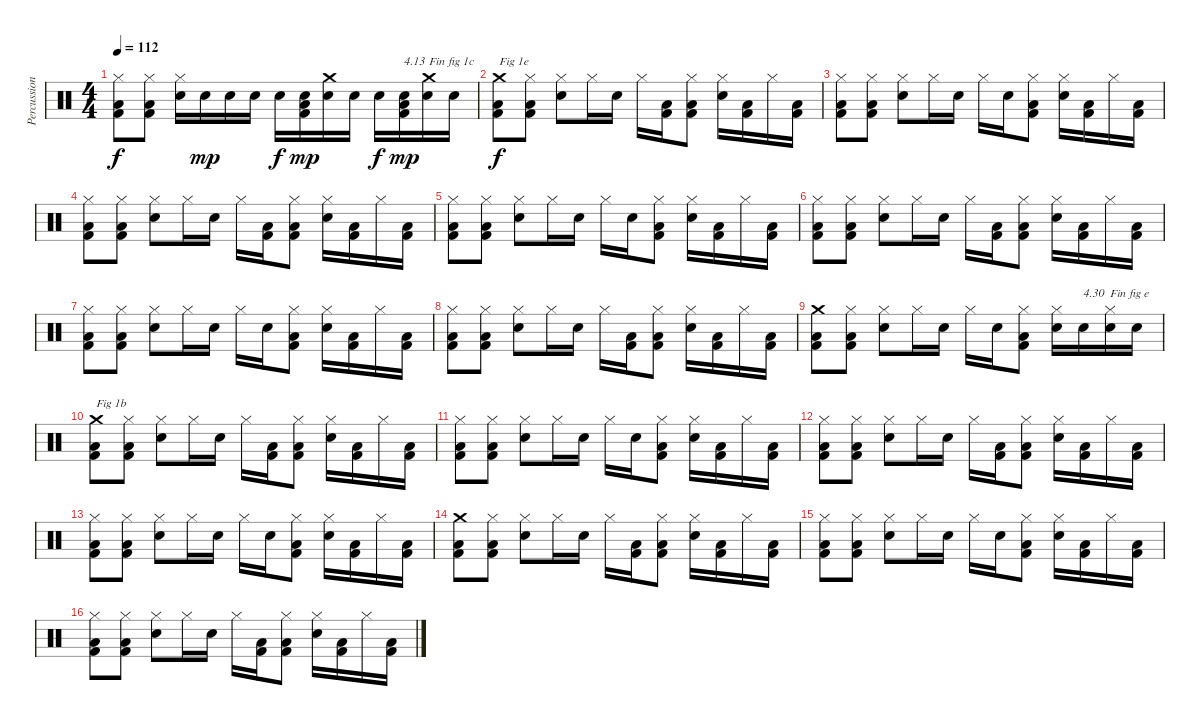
\track ("Percussions" "Percussion") {instrument percussion}
\staff {score}
\articulation defaults
\ts (4 4)
\tempo 112
\clef neutral
\ks c
("Kick (hit) 2" "Low Floor Tom (hit)" "Hi-Hat (closed)").8{dy f} ("Kick (hit) 2" "Low Floor Tom (hit)" "Hi-Hat (closed)").8 ("Snare (hit) 2" "Hi-Hat (closed)").16 "Snare (hit) 2".16{dy mp} "Snare (hit) 2".16 "Snare (hit) 2".16 "Snare (hit) 2".16{dy f} ("Kick (hit) 2" "Low Floor Tom (hit)" "Snare (hit) 2").16{dy mp} ("Snare (hit) 2" "Crash medium (hit)").16 "Snare (hit) 2".16 "Snare (hit) 2".16{dy f} ("Kick (hit) 2" "Low Floor Tom (hit)" "Snare (hit) 2").16{txt "4.13" dy mp} ("Snare (hit) 2" "Crash medium (hit)").16{txt "Fin fig 1c"} "Snare (hit) 2".16 |
("Kick (hit) 2" "Low Floor Tom (hit)" "Crash medium (hit)").8{txt "Fig 1e" dy f} ("Kick (hit) 2" "Low Floor Tom (hit)" "Hi-Hat (closed)").8 ("Snare (hit) 2" "Hi-Hat (closed)").8 "Hi-Hat (closed)".16 "Snare (hit) 2".16 "Hi-Hat (closed)".16 ("Kick (hit) 2" "Low Floor Tom (hit)").16 ("Kick (hit) 2" "Low Floor Tom (hit)" "Hi-Hat (closed)").8 ("Snare (hit) 2" "Hi-Hat (closed)").16 ("Kick (hit) 2" "Low Floor Tom (hit)").16 "Hi-Hat (closed)".16 ("Kick (hit) 2" "Low Floor Tom (hit)").16 |
("Kick (hit) 2" "Low Floor Tom (hit)" "Hi-Hat (closed)").8 ("Kick (hit) 2" "Low Floor Tom (hit)" "Hi-Hat (closed)").8 ("Snare (hit) 2" "Hi-Hat (closed)").8 "Hi-Hat (closed)".16 "Snare (hit) 2".16 "Hi-Hat (closed)".16 "Snare (hit) 2".16 ("Kick (hit) 2" "Low Floor Tom (hit)" "Hi-Hat (closed)").8 ("Snare (hit) 2" "Hi-Hat (closed)").16 ("Kick (hit) 2" "Low Floor Tom (hit)").16 "Hi-Hat (closed)".16 ("Kick (hit) 2" "Low Floor Tom (hit)").16 |
("Kick (hit) 2" "Low Floor Tom (hit)" "Hi-Hat (closed)").8 ("Kick (hit) 2" "Low Floor Tom (hit)" "Hi-Hat (closed)").8 ("Snare (hit) 2" "Hi-Hat (closed)").8 "Hi-Hat (closed)".16 "Snare (hit) 2".16 "Hi-Hat (closed)".16 ("Kick (hit) 2" "Low Floor Tom (hit)").16 ("Kick (hit) 2" "Low Floor Tom (hit)" "Hi-Hat (closed)").8 ("Snare (hit) 2" "Hi-Hat (closed)").16 ("Kick (hit) 2" "Low Floor Tom (hit)").16 "Hi-Hat (closed)".16 ("Kick (hit) 2" "Low Floor Tom (hit)").16 |
("Kick (hit) 2" "Low Floor Tom (hit)" "Hi-Hat (closed)").8 ("Kick (hit) 2" "Low Floor Tom (hit)" "Hi-Hat (closed)").8 ("Snare (hit) 2" "Hi-Hat (closed)").8 "Hi-Hat (closed)".16 "Snare (hit) 2".16 "Hi-Hat (closed)".16 "Snare (hit) 2".16 ("Kick (hit) 2" "Low Floor Tom (hit)" "Hi-Hat (closed)").8 ("Snare (hit) 2" "Hi-Hat (closed)").16 ("Kick (hit) 2" "Low Floor Tom (hit)").16 "Hi-Hat (closed)".16 ("Kick (hit) 2" "Low Floor Tom (hit)").16 |
("Kick (hit) 2" "Low Floor Tom (hit)" "Hi-Hat (closed)").8 ("Kick (hit) 2" "Low Floor Tom (hit)" "Hi-Hat (closed)").8 ("Snare (hit) 2" "Hi-Hat (closed)").8 "Hi-Hat (closed)".16 "Snare (hit) 2".16 "Hi-Hat (closed)".16 ("Kick (hit) 2" "Low Floor Tom (hit)").16 ("Kick (hit) 2" "Low Floor Tom (hit)" "Hi-Hat (closed)").8 ("Snare (hit) 2" "Hi-Hat (closed)").16 ("Kick (hit) 2" "Low Floor Tom (hit)").16 "Hi-Hat (closed)".16 ("Kick (hit) 2" "Low Floor Tom (hit)").16 |
("Kick (hit) 2" "Low Floor Tom (hit)" "Hi-Hat (closed)").8 ("Kick (hit) 2" "Low Floor Tom (hit)" "Hi-Hat (closed)").8 ("Snare (hit) 2" "Hi-Hat (closed)").8 "Hi-Hat (closed)".16 "Snare (hit) 2".16 "Hi-Hat (closed)".16 "Snare (hit) 2".16 ("Kick (hit) 2" "Low Floor Tom (hit)" "Hi-Hat (closed)").8 ("Snare (hit) 2" "Hi-Hat (closed)").16 ("Kick (hit) 2" "Low Floor Tom (hit)").16 "Hi-Hat (closed)".16 ("Kick (hit) 2" "Low Floor Tom (hit)").16 |
("Kick (hit) 2" "Low Floor Tom (hit)" "Hi-Hat (closed)").8 ("Kick (hit) 2" "Low Floor Tom (hit)" "Hi-Hat (closed)").8 ("Snare (hit) 2" "Hi-Hat (closed)").8 "Hi-Hat (closed)".16 "Snare (hit) 2".16 "Hi-Hat (closed)".16 ("Kick (hit) 2" "Low Floor Tom (hit)").16 ("Kick (hit) 2" "Low Floor Tom (hit)" "Hi-Hat (closed)").8 ("Snare (hit) 2" "Hi-Hat (closed)").16 ("Kick (hit) 2" "Low Floor Tom (hit)").16 "Hi-Hat (closed)".16 ("Kick (hit) 2" "Low Floor Tom (hit)").16 |
("Kick (hit) 2" "Low Floor Tom (hit)" "Crash medium (hit)").8 ("Kick (hit) 2" "Low Floor Tom (hit)" "Hi-Hat (closed)").8 ("Snare (hit) 2" "Hi-Hat (closed)").8 "Hi-Hat (closed)".16 "Snare (hit) 2".16 "Hi-Hat (closed)".16 "Snare (hit) 2".16 ("Kick (hit) 2" "Low Floor Tom (hit)" "Hi-Hat (closed)").8 ("Snare (hit) 2" "Hi-Hat (closed)").16 "Snare (hit) 2".16{txt "4.30"} ("Snare (hit) 2" "Hi-Hat (closed)").16{txt "Fin fig e"} "Snare (hit) 2".16 |
("Kick (hit) 2" "Low Floor Tom (hit)" "Crash medium (hit)").8{txt "Fig 1b"} ("Kick (hit) 2" "Low Floor Tom (hit)" "Hi-Hat (closed)").8 ("Snare (hit) 2" "Hi-Hat (closed)").8 "Hi-Hat (closed)".16 "Snare (hit) 2".16 "Hi-Hat (closed)".16 ("Kick (hit) 2" "Low Floor Tom (hit)").16 ("Kick (hit) 2" "Low Floor Tom (hit)" "Hi-Hat (closed)").8 ("Snare (hit) 2" "Hi-Hat (closed)").16 ("Kick (hit) 2" "Low Floor Tom (hit)").16 "Hi-Hat (closed)".16 ("Kick (hit) 2" "Low Floor Tom (hit)").16 |
("Kick (hit) 2" "Low Floor Tom (hit)" "Hi-Hat (closed)").8 ("Kick (hit) 2" "Low Floor Tom (hit)" "Hi-Hat (closed)").8 ("Snare (hit) 2" "Hi-Hat (closed)").8 "Hi-Hat (closed)".16 "Snare (hit) 2".16 "Hi-Hat (closed)".16 "Snare (hit) 2".16 ("Kick (hit) 2" "Low Floor Tom (hit)" "Hi-Hat (closed)").8 ("Snare (hit) 2" "Hi-Hat (closed)").16 ("Kick (hit) 2" "Low Floor Tom (hit)").16 "Hi-Hat (closed)".16 ("Kick (hit) 2" "Low Floor Tom (hit)").16 |
("Kick (hit) 2" "Low Floor Tom (hit)" "Hi-Hat (closed)").8 ("Kick (hit) 2" "Low Floor Tom (hit)" "Hi-Hat (closed)").8 ("Snare (hit) 2" "Hi-Hat (closed)").8 "Hi-Hat (closed)".16 "Snare (hit) 2".16 "Hi-Hat (closed)".16 ("Kick (hit) 2" "Low Floor Tom (hit)").16 ("Kick (hit) 2" "Low Floor Tom (hit)" "Hi-Hat (closed)").8 ("Snare (hit) 2" "Hi-Hat (closed)").16 ("Kick (hit) 2" "Low Floor Tom (hit)").16 "Hi-Hat (closed)".16 ("Kick (hit) 2" "Low Floor Tom (hit)").16 |
("Kick (hit) 2" "Low Floor Tom (hit)" "Hi-Hat (closed)").8 ("Kick (hit) 2" "Low Floor Tom (hit)" "Hi-Hat (closed)").8 ("Snare (hit) 2" "Hi-Hat (closed)").8 "Hi-Hat (closed)".16 "Snare (hit) 2".16 "Hi-Hat (closed)".16 "Snare (hit) 2".16 ("Kick (hit) 2" "Low Floor Tom (hit)" "Hi-Hat (closed)").8 ("Snare (hit) 2" "Hi-Hat (closed)").16 ("Kick (hit) 2" "Low Floor Tom (hit)").16 "Hi-Hat (closed)".16 ("Kick (hit) 2" "Low Floor Tom (hit)").16 |
("Kick (hit) 2" "Low Floor Tom (hit)" "Crash medium (hit)").8 ("Kick (hit) 2" "Low Floor Tom (hit)" "Hi-Hat (closed)").8 ("Snare (hit) 2" "Hi-Hat (closed)").8 "Hi-Hat (closed)".16 "Snare (hit) 2".16 "Hi-Hat (closed)".16 ("Kick (hit) 2" "Low Floor Tom (hit)").16 ("Kick (hit) 2" "Low Floor Tom (hit)" "Hi-Hat (closed)").8 ("Snare (hit) 2" "Hi-Hat (closed)").16 ("Kick (hit) 2" "Low Floor Tom (hit)").16 "Hi-Hat (closed)".16 ("Kick (hit) 2" "Low Floor Tom (hit)").16 |
("Kick (hit) 2" "Low Floor Tom (hit)" "Hi-Hat (closed)").8 ("Kick (hit) 2" "Low Floor Tom (hit)" "Hi-Hat (closed)").8 ("Snare (hit) 2" "Hi-Hat (closed)").8 "Hi-Hat (closed)".16 "Snare (hit) 2".16 "Hi-Hat (closed)".16 "Snare (hit) 2".16 ("Kick (hit) 2" "Low Floor Tom (hit)" "Hi-Hat (closed)").8 ("Snare (hit) 2" "Hi-Hat (closed)").16 ("Kick (hit) 2" "Low Floor Tom (hit)").16 "Hi-Hat (closed)".16 ("Kick (hit) 2" "Low Floor Tom (hit)").16 |
("Kick (hit) 2" "Low Floor Tom (hit)" "Hi-Hat (closed)").8 ("Kick (hit) 2" "Low Floor Tom (hit)" "Hi-Hat (closed)").8 ("Snare (hit) 2" "Hi-Hat (closed)").8 "Hi-Hat (closed)".16 "Snare (hit) 2".16 "Hi-Hat (closed)".16 ("Kick (hit) 2" "Low Floor Tom (hit)").16 ("Kick (hit) 2" "Low Floor Tom (hit)" "Hi-Hat (closed)").8 ("Snare (hit) 2" "Hi-Hat (closed)").16 ("Kick (hit) 2" "Low Floor Tom (hit)").16 "Hi-Hat (closed)".16 ("Kick (hit) 2" "Low Floor Tom (hit)").16
